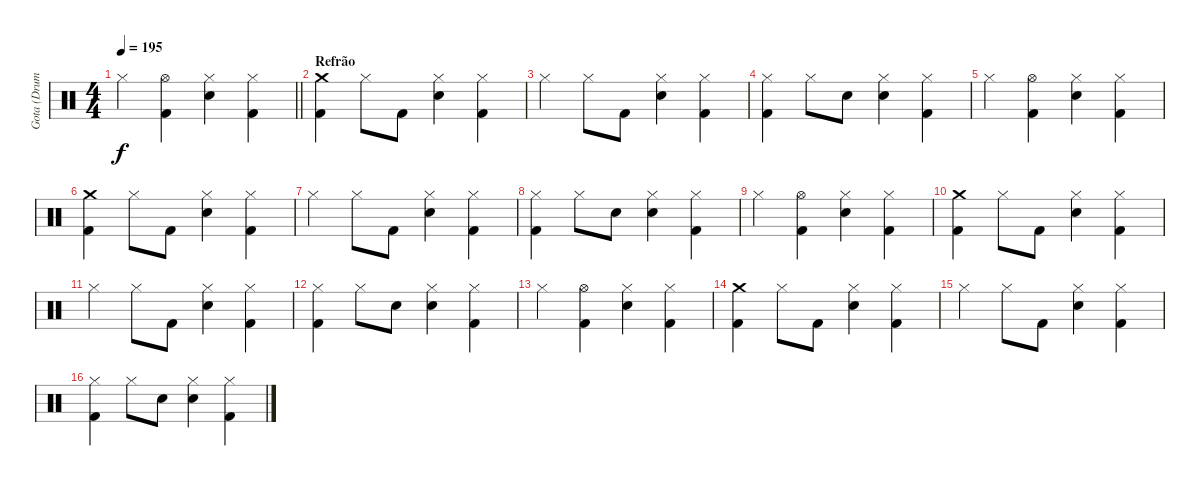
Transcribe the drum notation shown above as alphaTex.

\track ("Gota (Drums)" "Gota (Drum") {instrument percussion}
\staff {score}
\articulation defaults
\ts (4 4)
\tempo 195
\clef neutral
\barLineRight lightlight
\ks c "Hi-Hat (closed)".4{dy f}
("Hi-Hat (open)" "Kick (hit) 2").4 ("Hi-Hat (closed)" "Electric Snare (hit)").4 ("Hi-Hat (closed)" "Kick (hit) 2").4 |
\section ("" "Refrão")
("Crash medium (hit)" "Kick (hit) 2").4 "Hi-Hat (closed)".8 "Kick (hit) 2".8 ("Hi-Hat (closed)" "Electric Snare (hit)").4 ("Hi-Hat (closed)" "Kick (hit) 2").4 |
"Hi-Hat (closed)".4 "Hi-Hat (closed)".8 "Kick (hit) 2".8 ("Hi-Hat (closed)" "Electric Snare (hit)").4 ("Hi-Hat (closed)" "Kick (hit) 2").4 |
("Hi-Hat (closed)" "Kick (hit) 2").4 "Hi-Hat (closed)".8 "Electric Snare (hit)".8 ("Hi-Hat (closed)" "Electric Snare (hit)").4 ("Hi-Hat (closed)" "Kick (hit) 2").4 |
"Hi-Hat (closed)".4 ("Hi-Hat (open)" "Kick (hit) 2").4 ("Hi-Hat (closed)" "Electric Snare (hit)").4 ("Hi-Hat (closed)" "Kick (hit) 2").4 |
("Crash medium (hit)" "Kick (hit) 2").4 "Hi-Hat (closed)".8 "Kick (hit) 2".8 ("Hi-Hat (closed)" "Electric Snare (hit)").4 ("Hi-Hat (closed)" "Kick (hit) 2").4 |
"Hi-Hat (closed)".4 "Hi-Hat (closed)".8 "Kick (hit) 2".8 ("Hi-Hat (closed)" "Electric Snare (hit)").4 ("Hi-Hat (closed)" "Kick (hit) 2").4 |
("Hi-Hat (closed)" "Kick (hit) 2").4 "Hi-Hat (closed)".8 "Electric Snare (hit)".8 ("Hi-Hat (closed)" "Electric Snare (hit)").4 ("Hi-Hat (closed)" "Kick (hit) 2").4 |
"Hi-Hat (closed)".4 ("Hi-Hat (open)" "Kick (hit) 2").4 ("Hi-Hat (closed)" "Electric Snare (hit)").4 ("Hi-Hat (closed)" "Kick (hit) 2").4 |
("Crash medium (hit)" "Kick (hit) 2").4 "Hi-Hat (closed)".8 "Kick (hit) 2".8 ("Hi-Hat (closed)" "Electric Snare (hit)").4 ("Hi-Hat (closed)" "Kick (hit) 2").4 |
"Hi-Hat (closed)".4 "Hi-Hat (closed)".8 "Kick (hit) 2".8 ("Hi-Hat (closed)" "Electric Snare (hit)").4 ("Hi-Hat (closed)" "Kick (hit) 2").4 |
("Hi-Hat (closed)" "Kick (hit) 2").4 "Hi-Hat (closed)".8 "Electric Snare (hit)".8 ("Hi-Hat (closed)" "Electric Snare (hit)").4 ("Hi-Hat (closed)" "Kick (hit) 2").4 |
"Hi-Hat (closed)".4 ("Hi-Hat (open)" "Kick (hit) 2").4 ("Hi-Hat (closed)" "Electric Snare (hit)").4 ("Hi-Hat (closed)" "Kick (hit) 2").4 |
("Crash medium (hit)" "Kick (hit) 2").4 "Hi-Hat (closed)".8 "Kick (hit) 2".8 ("Hi-Hat (closed)" "Electric Snare (hit)").4 ("Hi-Hat (closed)" "Kick (hit) 2").4 |
"Hi-Hat (closed)".4 "Hi-Hat (closed)".8 "Kick (hit) 2".8 ("Hi-Hat (closed)" "Electric Snare (hit)").4 ("Hi-Hat (closed)" "Kick (hit) 2").4 |
("Hi-Hat (closed)" "Kick (hit) 2").4 "Hi-Hat (closed)".8 "Electric Snare (hit)".8 ("Hi-Hat (closed)" "Electric Snare (hit)").4 ("Hi-Hat (closed)" "Kick (hit) 2").4
